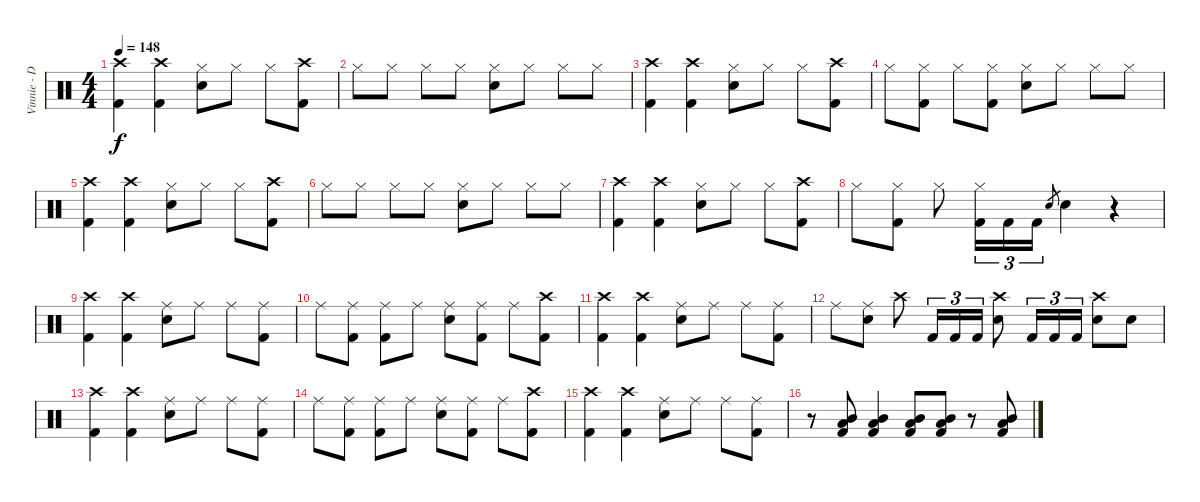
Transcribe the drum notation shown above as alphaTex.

\track ("Vinnie - Drums" "Vinnie - D") {instrument percussion}
\staff {score}
\articulation defaults
\ts (4 4)
\tempo 148
\clef neutral
\ks c
("Crash high (hit)" "Kick (hit) 2").4{dy f} ("Crash high (hit)" "Kick (hit) 2").4 ("Hi-Hat (closed)" "Electric Snare (hit)").8 "Hi-Hat (closed)".8 "Hi-Hat (closed)".8 ("Crash high (hit)" "Kick (hit) 2").8 |
"Hi-Hat (closed)".8 "Hi-Hat (closed)".8 "Hi-Hat (closed)".8 "Hi-Hat (closed)".8 ("Hi-Hat (closed)" "Electric Snare (hit)").8 "Hi-Hat (closed)".8 "Hi-Hat (closed)".8 "Hi-Hat (closed)".8 |
("Crash high (hit)" "Kick (hit) 2").4 ("Crash high (hit)" "Kick (hit) 2").4 ("Hi-Hat (closed)" "Electric Snare (hit)").8 "Hi-Hat (closed)".8 "Hi-Hat (closed)".8 ("Crash high (hit)" "Kick (hit) 2").8 |
"Hi-Hat (closed)".8 ("Hi-Hat (closed)" "Kick (hit) 2").8 "Hi-Hat (closed)".8 ("Hi-Hat (closed)" "Kick (hit) 2").8 ("Hi-Hat (closed)" "Electric Snare (hit)").8 "Hi-Hat (closed)".8 "Hi-Hat (closed)".8 "Hi-Hat (closed)".8 |
("Crash high (hit)" "Kick (hit) 2").4 ("Crash high (hit)" "Kick (hit) 2").4 ("Hi-Hat (closed)" "Electric Snare (hit)").8 "Hi-Hat (closed)".8 "Hi-Hat (closed)".8 ("Crash high (hit)" "Kick (hit) 2").8 |
"Hi-Hat (closed)".8 "Hi-Hat (closed)".8 "Hi-Hat (closed)".8 "Hi-Hat (closed)".8 ("Hi-Hat (closed)" "Electric Snare (hit)").8 "Hi-Hat (closed)".8 "Hi-Hat (closed)".8 "Hi-Hat (closed)".8 |
("Crash high (hit)" "Kick (hit) 2").4 ("Crash high (hit)" "Kick (hit) 2").4 ("Hi-Hat (closed)" "Electric Snare (hit)").8 "Hi-Hat (closed)".8 "Hi-Hat (closed)".8 ("Crash high (hit)" "Kick (hit) 2").8 |
"Hi-Hat (closed)".8 ("Hi-Hat (closed)" "Kick (hit) 2").8 "Hi-Hat (closed)".8 ("Hi-Hat (closed)" "Kick (hit) 2").16{tu (3 2)} "Kick (hit) 2".16{tu (3 2)} "Kick (hit) 2".16{tu (3 2)} "Electric Snare (hit)".8{gr} "Electric Snare (hit)".4 r.4 |
("Crash high (hit)" "Kick (hit) 2").4 ("Crash high (hit)" "Kick (hit) 2").4 ("Ride (middle)" "Electric Snare (hit)").8 "Ride (middle)".8 "Ride (middle)".8 ("Ride (middle)" "Kick (hit) 2").8 |
"Ride (middle)".8 ("Ride (middle)" "Kick (hit) 2").8 ("Ride (middle)" "Kick (hit) 2").8 "Ride (middle)".8 ("Ride (middle)" "Electric Snare (hit)").8 ("Ride (middle)" "Kick (hit) 2").8 "Ride (middle)".8 ("Crash high (hit)" "Kick (hit) 2").8 |
("Crash high (hit)" "Kick (hit) 2").4 ("Crash high (hit)" "Kick (hit) 2").4 ("Ride (middle)" "Electric Snare (hit)").8 "Ride (middle)".8 "Ride (middle)".8 ("Ride (middle)" "Kick (hit) 2").8 |
"Ride (middle)".8 ("Ride (middle)" "Electric Snare (hit)").8 "Crash high (hit)".8 "Kick (hit) 2".16{tu (3 2)} "Kick (hit) 2".16{tu (3 2)} "Kick (hit) 2".16{tu (3 2)} ("Crash high (hit)" "Electric Snare (hit)").8 "Kick (hit) 2".16{tu (3 2)} "Kick (hit) 2".16{tu (3 2)} "Kick (hit) 2".16{tu (3 2)} ("Crash high (hit)" "Electric Snare (hit)").8 "Electric Snare (hit)".8 |
("Crash high (hit)" "Kick (hit) 2").4 ("Crash high (hit)" "Kick (hit) 2").4 ("Ride (middle)" "Electric Snare (hit)").8 "Ride (middle)".8 "Ride (middle)".8 ("Ride (middle)" "Kick (hit) 2").8 |
"Ride (middle)".8 ("Ride (middle)" "Kick (hit) 2").8 ("Ride (middle)" "Kick (hit) 2").8 "Ride (middle)".8 ("Ride (middle)" "Electric Snare (hit)").8 ("Ride (middle)" "Kick (hit) 2").8 "Ride (middle)".8 ("Crash high (hit)" "Kick (hit) 2").8 |
("Crash high (hit)" "Kick (hit) 2").4 ("Crash high (hit)" "Kick (hit) 2").4 ("Ride (middle)" "Electric Snare (hit)").8 "Ride (middle)".8 "Ride (middle)".8 ("Ride (middle)" "Kick (hit) 2").8 |
r.8 ("Mid Tom (hit)" "Low Tom (hit)" "Kick (hit) 2").8 ("Mid Tom (hit)" "Low Tom (hit)" "Kick (hit) 2").4 ("Mid Tom (hit)" "Low Tom (hit)" "Kick (hit) 2").8 ("Mid Tom (hit)" "Low Tom (hit)" "Kick (hit) 2").8 r.8 ("Mid Tom (hit)" "Low Tom (hit)" "Kick (hit) 2").8
